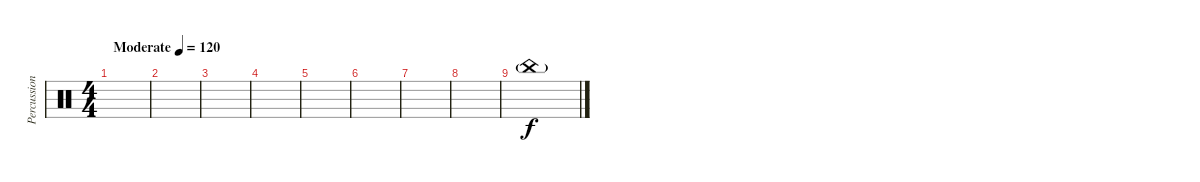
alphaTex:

\track ("Percussion" "Percussion") {instrument percussion}
\staff {score}
\articulation defaults
\ts (4 4)
\tempo (120 "Moderate")
\clef neutral
\ks c
|
|
|
|
|
|
|
|
"China (hit)"{g}.1
